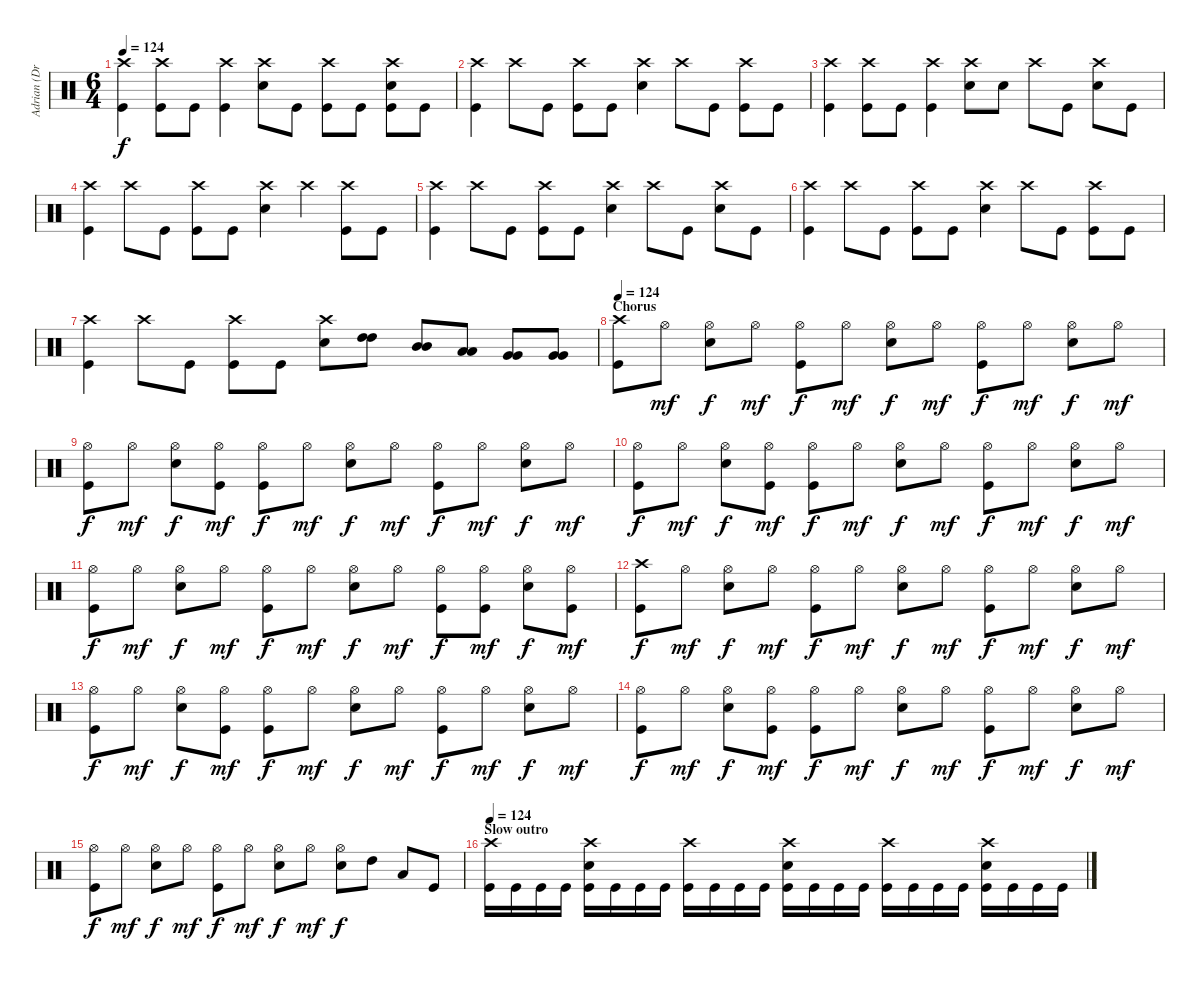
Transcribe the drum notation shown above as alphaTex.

\track ("Adrian (Drums)" "Adrian (Dr") {instrument percussion}
\staff {score}
\articulation defaults
\ts (6 4)
\tempo 124
\clef neutral
\ks c
("Crash high (hit)" "Kick (hit)").4{dy f} ("Crash high (hit)" "Kick (hit)").8 "Kick (hit)".8 ("Crash high (hit)" "Kick (hit)").4 ("Crash high (hit)" "Electric Snare (hit)").8 "Kick (hit)".8 ("Crash high (hit)" "Kick (hit)").8 "Kick (hit)".8 ("Crash high (hit)" "Electric Snare (hit)" "Kick (hit)").8 "Kick (hit)".8 |
("Crash high (hit)" "Kick (hit)").4 "Crash high (hit)".8 "Kick (hit)".8 ("Crash high (hit)" "Kick (hit)").8 "Kick (hit)".8 ("Crash high (hit)" "Electric Snare (hit)").4 "Crash high (hit)".8 "Kick (hit)".8 ("Crash high (hit)" "Kick (hit)").8 "Kick (hit)".8 |
("Crash high (hit)" "Kick (hit)").4 ("Crash high (hit)" "Kick (hit)").8 "Kick (hit)".8 ("Crash high (hit)" "Kick (hit)").4 ("Crash high (hit)" "Electric Snare (hit)").8 "Electric Snare (hit)".8 "Crash high (hit)".8 "Kick (hit)".8 ("Crash high (hit)" "Electric Snare (hit)").8 "Kick (hit)".8 |
("Crash high (hit)" "Kick (hit)").4 "Crash high (hit)".8 "Kick (hit)".8 ("Crash high (hit)" "Kick (hit)").8 "Kick (hit)".8 ("Crash high (hit)" "Electric Snare (hit)").4 "Crash high (hit)".4 ("Crash high (hit)" "Kick (hit)").8 "Kick (hit)".8 |
("Crash high (hit)" "Kick (hit)").4 "Crash high (hit)".8 "Kick (hit)".8 ("Crash high (hit)" "Kick (hit)").8 "Kick (hit)".8 ("Crash high (hit)" "Electric Snare (hit)").4 "Crash high (hit)".8 "Kick (hit)".8 ("Crash high (hit)" "Electric Snare (hit)").8 "Kick (hit)".8 |
("Crash high (hit)" "Kick (hit)").4 "Crash high (hit)".8 "Kick (hit)".8 ("Crash high (hit)" "Kick (hit)").8 "Kick (hit)".8 ("Crash high (hit)" "Electric Snare (hit)").4 "Crash high (hit)".8 "Kick (hit)".8 ("Crash high (hit)" "Kick (hit)").8 "Kick (hit)".8 |
("Crash high (hit)" "Kick (hit)").4 "Crash high (hit)".8 "Kick (hit)".8 ("Crash high (hit)" "Kick (hit)").8 "Kick (hit)".8 ("Crash high (hit)" "Electric Snare (hit)").8 ("High Tom (hit)" "High Tom (hit)").8{bu 120} ("Mid Tom (hit)" "Mid Tom (hit)").8{bu 120} ("Low Tom (hit)" "Low Tom (hit)").8{bu 120} ("Very Low Tom (hit)" "Very Low Tom (hit)").8{bu 120} ("Very Low Tom (hit)" "Very Low Tom (hit)").8{bu 120} |
\section ("" "Chorus")
\tempo 124
("Crash high (hit)" "Kick (hit)").8 "Hi-Hat (open)".8{dy mf} ("Hi-Hat (open)" "Electric Snare (hit)").8{dy f} "Hi-Hat (open)".8{dy mf} ("Hi-Hat (open)" "Kick (hit)").8{dy f} "Hi-Hat (open)".8{dy mf} ("Hi-Hat (open)" "Electric Snare (hit)").8{dy f} "Hi-Hat (open)".8{dy mf} ("Hi-Hat (open)" "Kick (hit)").8{dy f} "Hi-Hat (open)".8{dy mf} ("Hi-Hat (open)" "Electric Snare (hit)").8{dy f} "Hi-Hat (open)".8{dy mf} |
("Hi-Hat (open)" "Kick (hit)").8{dy f} "Hi-Hat (open)".8{dy mf} ("Hi-Hat (open)" "Electric Snare (hit)").8{dy f} ("Hi-Hat (open)" "Kick (hit)").8{dy mf} ("Hi-Hat (open)" "Kick (hit)").8{dy f} "Hi-Hat (open)".8{dy mf} ("Hi-Hat (open)" "Electric Snare (hit)").8{dy f} "Hi-Hat (open)".8{dy mf} ("Hi-Hat (open)" "Kick (hit)").8{dy f} "Hi-Hat (open)".8{dy mf} ("Hi-Hat (open)" "Electric Snare (hit)").8{dy f} "Hi-Hat (open)".8{dy mf} |
("Hi-Hat (open)" "Kick (hit)").8{dy f} "Hi-Hat (open)".8{dy mf} ("Hi-Hat (open)" "Electric Snare (hit)").8{dy f} ("Hi-Hat (open)" "Kick (hit)").8{dy mf} ("Hi-Hat (open)" "Kick (hit)").8{dy f} "Hi-Hat (open)".8{dy mf} ("Hi-Hat (open)" "Electric Snare (hit)").8{dy f} "Hi-Hat (open)".8{dy mf} ("Hi-Hat (open)" "Kick (hit)").8{dy f} "Hi-Hat (open)".8{dy mf} ("Hi-Hat (open)" "Electric Snare (hit)").8{dy f} "Hi-Hat (open)".8{dy mf} |
("Hi-Hat (open)" "Kick (hit)").8{dy f} "Hi-Hat (open)".8{dy mf} ("Hi-Hat (open)" "Electric Snare (hit)").8{dy f} "Hi-Hat (open)".8{dy mf} ("Hi-Hat (open)" "Kick (hit)").8{dy f} "Hi-Hat (open)".8{dy mf} ("Hi-Hat (open)" "Electric Snare (hit)").8{dy f} "Hi-Hat (open)".8{dy mf} ("Hi-Hat (open)" "Kick (hit)").8{dy f} ("Hi-Hat (open)" "Kick (hit)").8{dy mf} ("Hi-Hat (open)" "Electric Snare (hit)").8{dy f} ("Hi-Hat (open)" "Kick (hit)").8{dy mf} |
("Crash high (hit)" "Kick (hit)").8{dy f} "Hi-Hat (open)".8{dy mf} ("Hi-Hat (open)" "Electric Snare (hit)").8{dy f} "Hi-Hat (open)".8{dy mf} ("Hi-Hat (open)" "Kick (hit)").8{dy f} "Hi-Hat (open)".8{dy mf} ("Hi-Hat (open)" "Electric Snare (hit)").8{dy f} "Hi-Hat (open)".8{dy mf} ("Hi-Hat (open)" "Kick (hit)").8{dy f} "Hi-Hat (open)".8{dy mf} ("Hi-Hat (open)" "Electric Snare (hit)").8{dy f} "Hi-Hat (open)".8{dy mf} |
("Hi-Hat (open)" "Kick (hit)").8{dy f} "Hi-Hat (open)".8{dy mf} ("Hi-Hat (open)" "Electric Snare (hit)").8{dy f} ("Hi-Hat (open)" "Kick (hit)").8{dy mf} ("Hi-Hat (open)" "Kick (hit)").8{dy f} "Hi-Hat (open)".8{dy mf} ("Hi-Hat (open)" "Electric Snare (hit)").8{dy f} "Hi-Hat (open)".8{dy mf} ("Hi-Hat (open)" "Kick (hit)").8{dy f} "Hi-Hat (open)".8{dy mf} ("Hi-Hat (open)" "Electric Snare (hit)").8{dy f} "Hi-Hat (open)".8{dy mf} |
("Hi-Hat (open)" "Kick (hit)").8{dy f} "Hi-Hat (open)".8{dy mf} ("Hi-Hat (open)" "Electric Snare (hit)").8{dy f} ("Hi-Hat (open)" "Kick (hit)").8{dy mf} ("Hi-Hat (open)" "Kick (hit)").8{dy f} "Hi-Hat (open)".8{dy mf} ("Hi-Hat (open)" "Electric Snare (hit)").8{dy f} "Hi-Hat (open)".8{dy mf} ("Hi-Hat (open)" "Kick (hit)").8{dy f} "Hi-Hat (open)".8{dy mf} ("Hi-Hat (open)" "Electric Snare (hit)").8{dy f} "Hi-Hat (open)".8{dy mf} |
("Hi-Hat (open)" "Kick (hit)").8{dy f} "Hi-Hat (open)".8{dy mf} ("Hi-Hat (open)" "Electric Snare (hit)").8{dy f} "Hi-Hat (open)".8{dy mf} ("Hi-Hat (open)" "Kick (hit)").8{dy f} "Hi-Hat (open)".8{dy mf} ("Hi-Hat (open)" "Electric Snare (hit)").8{dy f} "Hi-Hat (open)".8{dy mf} ("Hi-Hat (open)" "Electric Snare (hit)").8{dy f} "High Tom (hit)".8 "Low Tom (hit)".8 "Kick (hit)".8 |
\section ("" "Slow outro")
\tempo 124
("Crash high (hit)" "Kick (hit)").16 "Kick (hit)".16 "Kick (hit)".16 "Kick (hit)".16 ("Crash high (hit)" "Electric Snare (hit)" "Kick (hit)").16 "Kick (hit)".16 "Kick (hit)".16 "Kick (hit)".16 ("Crash high (hit)" "Kick (hit)").16 "Kick (hit)".16 "Kick (hit)".16 "Kick (hit)".16 ("Crash high (hit)" "Electric Snare (hit)" "Kick (hit)").16 "Kick (hit)".16 "Kick (hit)".16 "Kick (hit)".16 ("Crash high (hit)" "Kick (hit)").16 "Kick (hit)".16 "Kick (hit)".16 "Kick (hit)".16 ("Crash high (hit)" "Electric Snare (hit)" "Kick (hit)").16 "Kick (hit)".16 "Kick (hit)".16 "Kick (hit)".16
